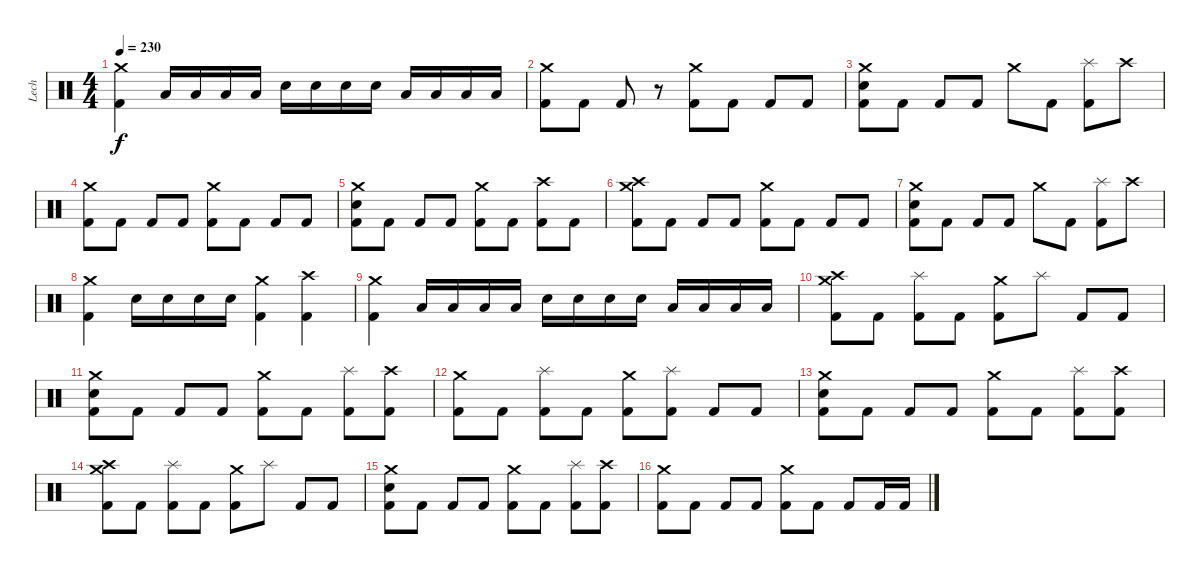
\track ("Lech" "Lech") {instrument percussion}
\staff {score}
\articulation defaults
\ts (4 4)
\tempo 230
\clef neutral
\ks c
("Crash medium (hit)" "Kick (hit) 2").4{dy f} "Low Tom (hit)".16 "Low Tom (hit)".16 "Low Tom (hit)".16 "Low Tom (hit)".16 "Electric Snare (hit)".16 "Electric Snare (hit)".16 "Electric Snare (hit)".16 "Electric Snare (hit)".16 "Low Tom (hit)".16 "Low Tom (hit)".16 "Low Tom (hit)".16 "Low Tom (hit)".16 |
("Crash medium (hit)" "Kick (hit) 2").8 "Kick (hit) 2".8 "Kick (hit) 2".8 r.8 ("Crash medium (hit)" "Kick (hit) 2").8 "Kick (hit) 2".8 "Kick (hit) 2".8 "Kick (hit) 2".8 |
("Crash medium (hit)" "Electric Snare (hit)" "Kick (hit) 2").8 "Kick (hit) 2".8 "Kick (hit) 2".8 "Kick (hit) 2".8 "Crash medium (hit)".8 "Kick (hit) 2".8 ("Splash (hit)" "Kick (hit) 2").8 "Crash high (hit)".8 |
("Crash medium (hit)" "Kick (hit) 2").8 "Kick (hit) 2".8 "Kick (hit) 2".8 "Kick (hit) 2".8 ("Crash medium (hit)" "Kick (hit) 2").8 "Kick (hit) 2".8 "Kick (hit) 2".8 "Kick (hit) 2".8 |
("Crash medium (hit)" "Electric Snare (hit)" "Kick (hit) 2").8 "Kick (hit) 2".8 "Kick (hit) 2".8 "Kick (hit) 2".8 ("Crash medium (hit)" "Kick (hit) 2").8 "Kick (hit) 2".8 ("Crash high (hit)" "Kick (hit) 2").8 "Kick (hit) 2".8 |
("Crash medium (hit)" "Crash high (hit)" "Kick (hit) 2").8 "Kick (hit) 2".8 "Kick (hit) 2".8 "Kick (hit) 2".8 ("Crash medium (hit)" "Kick (hit) 2").8 "Kick (hit) 2".8 "Kick (hit) 2".8 "Kick (hit) 2".8 |
("Crash medium (hit)" "Electric Snare (hit)" "Kick (hit) 2").8 "Kick (hit) 2".8 "Kick (hit) 2".8 "Kick (hit) 2".8 "Crash medium (hit)".8 "Kick (hit) 2".8 ("Splash (hit)" "Kick (hit) 2").8 "Crash high (hit)".8 |
("Crash medium (hit)" "Kick (hit) 2").4 "Electric Snare (hit)".16 "Electric Snare (hit)".16 "Electric Snare (hit)".16 "Electric Snare (hit)".16 ("Crash medium (hit)" "Kick (hit) 2").4 ("Crash high (hit)" "Kick (hit) 2").4 |
("Crash medium (hit)" "Kick (hit) 2").4 "Low Tom (hit)".16 "Low Tom (hit)".16 "Low Tom (hit)".16 "Low Tom (hit)".16 "Electric Snare (hit)".16 "Electric Snare (hit)".16 "Electric Snare (hit)".16 "Electric Snare (hit)".16 "Low Tom (hit)".16 "Low Tom (hit)".16 "Low Tom (hit)".16 "Low Tom (hit)".16 |
("Crash medium (hit)" "Crash high (hit)" "Kick (hit) 2").8 "Kick (hit) 2".8 ("Splash (hit)" "Kick (hit) 2").8 "Kick (hit) 2".8 ("Crash medium (hit)" "Kick (hit) 2").8 "Splash (hit)".8 "Kick (hit) 2".8 "Kick (hit) 2".8 |
("Crash medium (hit)" "Electric Snare (hit)" "Kick (hit) 2").8 "Kick (hit) 2".8 "Kick (hit) 2".8 "Kick (hit) 2".8 ("Crash medium (hit)" "Kick (hit) 2").8 "Kick (hit) 2".8 ("Splash (hit)" "Kick (hit) 2").8 ("Crash high (hit)" "Kick (hit) 2").8 |
("Crash medium (hit)" "Kick (hit) 2").8 "Kick (hit) 2".8 ("Splash (hit)" "Kick (hit) 2").8 "Kick (hit) 2".8 ("Crash medium (hit)" "Kick (hit) 2").8 ("Splash (hit)" "Kick (hit) 2").8 "Kick (hit) 2".8 "Kick (hit) 2".8 |
("Crash medium (hit)" "Electric Snare (hit)" "Kick (hit) 2").8 "Kick (hit) 2".8 "Kick (hit) 2".8 "Kick (hit) 2".8 ("Crash medium (hit)" "Kick (hit) 2").8 "Kick (hit) 2".8 ("Splash (hit)" "Kick (hit) 2").8 ("Crash high (hit)" "Kick (hit) 2").8 |
("Crash medium (hit)" "Crash high (hit)" "Kick (hit) 2").8 "Kick (hit) 2".8 ("Splash (hit)" "Kick (hit) 2").8 "Kick (hit) 2".8 ("Crash medium (hit)" "Kick (hit) 2").8 "Splash (hit)".8 "Kick (hit) 2".8 "Kick (hit) 2".8 |
("Crash medium (hit)" "Electric Snare (hit)" "Kick (hit) 2").8 "Kick (hit) 2".8 "Kick (hit) 2".8 "Kick (hit) 2".8 ("Crash medium (hit)" "Kick (hit) 2").8 "Kick (hit) 2".8 ("Splash (hit)" "Kick (hit) 2").8 ("Crash high (hit)" "Kick (hit) 2").8 |
("Crash medium (hit)" "Kick (hit) 2").8 "Kick (hit) 2".8 "Kick (hit) 2".8 "Kick (hit) 2".8 ("Crash medium (hit)" "Kick (hit) 2").8 "Kick (hit) 2".8 "Kick (hit) 2".8 "Kick (hit) 2".16 "Kick (hit) 2".16
